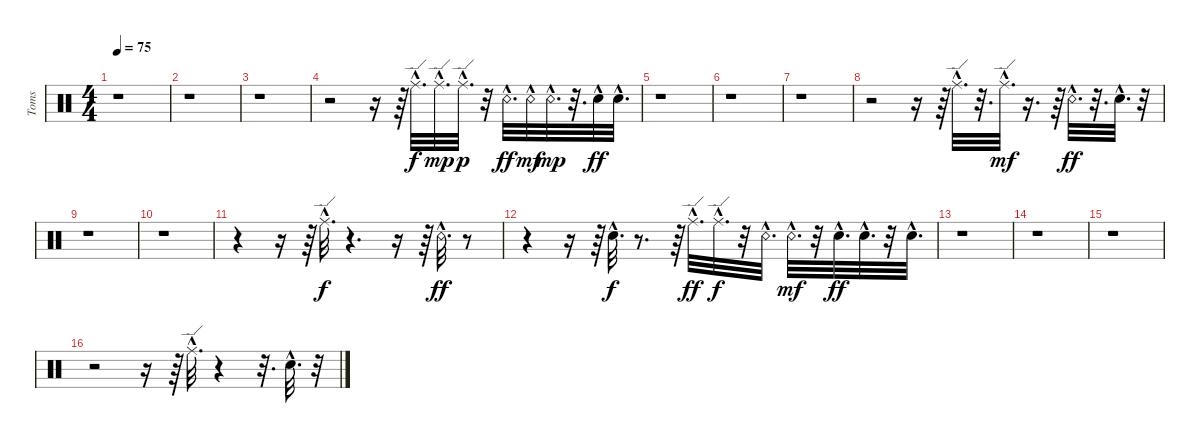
\track ("Toms" "Toms") {instrument percussion}
\staff {score}
\articulation defaults
\ts (4 4)
\tempo 75
\clef neutral
\ks c
r.1{dy ff} |
r.1 |
r.1 |
r.2 r.16 r.64 "Ride (edge)"{hac}.32{d dy f} "Ride (edge)"{hac}.32{d dy mp} "Ride (edge)"{hac}.32{d dy p} r.32 "Snare (rim shot)"{hac}.32{d dy ff} "Snare (rim shot)"{hac}.32{dy mf} "Snare (rim shot)"{hac}.32{d dy mp} r.32{d} "Snare (hit)"{hac}.32{dy ff} "Snare (hit)"{hac}.32{d} |
r.1 |
r.1 |
r.1 |
r.2 r.16 r.64 "Ride (edge)"{hac}.32{d} r.32{d} "Ride (edge)"{hac}.32{d dy mf} r.16{d} r.64 "Snare (rim shot)"{hac}.32{d dy ff} r.32{d} "Snare (hit)"{hac}.32{d} r.32 |
r.1 |
r.1 |
r.4 r.16 r.64 "Ride (edge)"{hac}.32{d dy f} r.4{d} r.16 r.64 "Snare (rim shot)"{hac}.32{d dy ff} r.8 |
r.4 r.16 r.64 "Snare (hit)"{hac}.32{d dy f} r.8{d} r.64 "Ride (edge)"{hac}.32{d dy ff} "Ride (edge)"{hac}.32{d dy f} r.32 "Snare (rim shot)"{hac}.32{d} "Snare (rim shot)"{hac}.32{d dy mf} r.32 "Snare (hit)"{hac}.32{d dy ff} "Snare (hit)"{hac}.32{d} r.32 "Snare (hit)"{hac}.32{d} |
r.1 |
r.1 |
r.1 |
r.2 r.16 r.64 "Ride (edge)"{hac}.32{d} r.4 r.32{d} "Snare (hit)"{hac}.32{d} r.32
